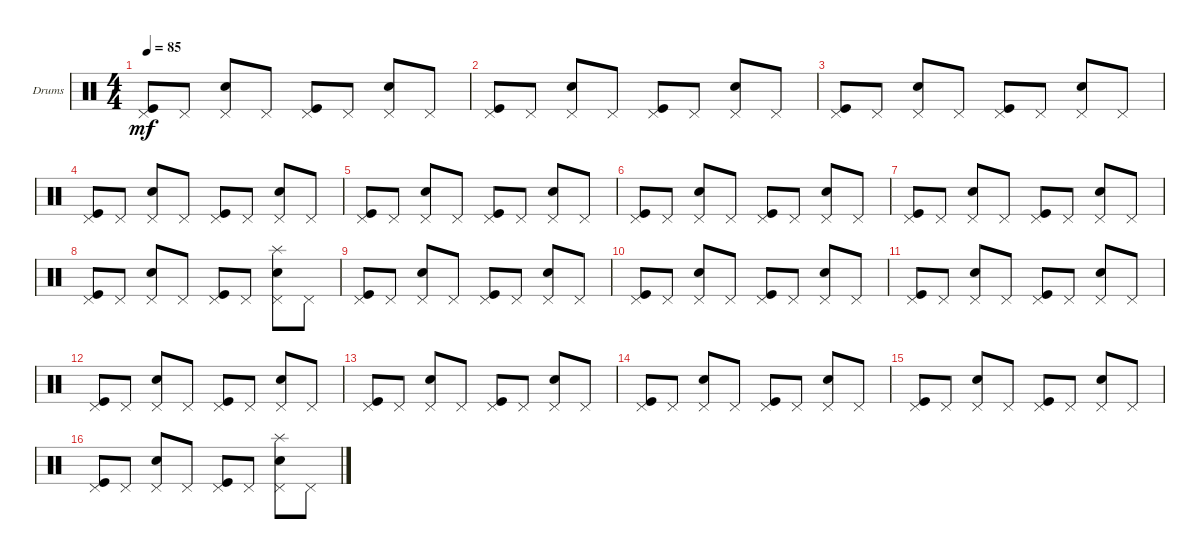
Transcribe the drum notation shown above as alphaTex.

\defaultSystemsLayout 4
\bracketExtendMode groupsimilarinstruments
\firstSystemTrackNameOrientation horizontal
\otherSystemsTrackNameOrientation horizontal
\track ("Drumkit" "Drums") {instrument percussion}
\staff {score}
\articulation defaults
\ts (4 4)
\tempo 85
\clef neutral
\ks c
("Kick (hit)" "Pedal Hi-Hat (hit)").8{dy mf} "Pedal Hi-Hat (hit)".8 ("Snare (hit) 2" "Pedal Hi-Hat (hit)").8 "Pedal Hi-Hat (hit)".8 ("Kick (hit)" "Pedal Hi-Hat (hit)").8 "Pedal Hi-Hat (hit)".8 ("Snare (hit) 2" "Pedal Hi-Hat (hit)").8 "Pedal Hi-Hat (hit)".8 |
("Kick (hit)" "Pedal Hi-Hat (hit)").8 "Pedal Hi-Hat (hit)".8 ("Snare (hit) 2" "Pedal Hi-Hat (hit)").8 "Pedal Hi-Hat (hit)".8 ("Kick (hit)" "Pedal Hi-Hat (hit)").8 "Pedal Hi-Hat (hit)".8 ("Snare (hit) 2" "Pedal Hi-Hat (hit)").8 "Pedal Hi-Hat (hit)".8 |
("Kick (hit)" "Pedal Hi-Hat (hit)").8 "Pedal Hi-Hat (hit)".8 ("Snare (hit) 2" "Pedal Hi-Hat (hit)").8 "Pedal Hi-Hat (hit)".8 ("Kick (hit)" "Pedal Hi-Hat (hit)").8 "Pedal Hi-Hat (hit)".8 ("Snare (hit) 2" "Pedal Hi-Hat (hit)").8 "Pedal Hi-Hat (hit)".8 |
("Kick (hit)" "Pedal Hi-Hat (hit)").8 "Pedal Hi-Hat (hit)".8 ("Snare (hit) 2" "Pedal Hi-Hat (hit)").8 "Pedal Hi-Hat (hit)".8 ("Kick (hit)" "Pedal Hi-Hat (hit)").8 "Pedal Hi-Hat (hit)".8 ("Snare (hit) 2" "Pedal Hi-Hat (hit)").8 "Pedal Hi-Hat (hit)".8 |
("Kick (hit)" "Pedal Hi-Hat (hit)").8 "Pedal Hi-Hat (hit)".8 ("Snare (hit) 2" "Pedal Hi-Hat (hit)").8 "Pedal Hi-Hat (hit)".8 ("Kick (hit)" "Pedal Hi-Hat (hit)").8 "Pedal Hi-Hat (hit)".8 ("Snare (hit) 2" "Pedal Hi-Hat (hit)").8 "Pedal Hi-Hat (hit)".8 |
("Kick (hit)" "Pedal Hi-Hat (hit)").8 "Pedal Hi-Hat (hit)".8 ("Snare (hit) 2" "Pedal Hi-Hat (hit)").8 "Pedal Hi-Hat (hit)".8 ("Kick (hit)" "Pedal Hi-Hat (hit)").8 "Pedal Hi-Hat (hit)".8 ("Snare (hit) 2" "Pedal Hi-Hat (hit)").8 "Pedal Hi-Hat (hit)".8 |
("Kick (hit)" "Pedal Hi-Hat (hit)").8 "Pedal Hi-Hat (hit)".8 ("Snare (hit) 2" "Pedal Hi-Hat (hit)").8 "Pedal Hi-Hat (hit)".8 ("Kick (hit)" "Pedal Hi-Hat (hit)").8 "Pedal Hi-Hat (hit)".8 ("Snare (hit) 2" "Pedal Hi-Hat (hit)").8 "Pedal Hi-Hat (hit)".8 |
("Kick (hit)" "Pedal Hi-Hat (hit)").8 "Pedal Hi-Hat (hit)".8 ("Snare (hit) 2" "Pedal Hi-Hat (hit)").8 "Pedal Hi-Hat (hit)".8 ("Kick (hit)" "Pedal Hi-Hat (hit)").8 "Pedal Hi-Hat (hit)".8 ("Snare (hit) 2" "Pedal Hi-Hat (hit)" "Splash (hit)").8 "Pedal Hi-Hat (hit)".8 |
("Kick (hit)" "Pedal Hi-Hat (hit)").8 "Pedal Hi-Hat (hit)".8 ("Snare (hit) 2" "Pedal Hi-Hat (hit)").8 "Pedal Hi-Hat (hit)".8 ("Kick (hit)" "Pedal Hi-Hat (hit)").8 "Pedal Hi-Hat (hit)".8 ("Snare (hit) 2" "Pedal Hi-Hat (hit)").8 "Pedal Hi-Hat (hit)".8 |
("Kick (hit)" "Pedal Hi-Hat (hit)").8 "Pedal Hi-Hat (hit)".8 ("Snare (hit) 2" "Pedal Hi-Hat (hit)").8 "Pedal Hi-Hat (hit)".8 ("Kick (hit)" "Pedal Hi-Hat (hit)").8 "Pedal Hi-Hat (hit)".8 ("Snare (hit) 2" "Pedal Hi-Hat (hit)").8 "Pedal Hi-Hat (hit)".8 |
("Kick (hit)" "Pedal Hi-Hat (hit)").8 "Pedal Hi-Hat (hit)".8 ("Snare (hit) 2" "Pedal Hi-Hat (hit)").8 "Pedal Hi-Hat (hit)".8 ("Kick (hit)" "Pedal Hi-Hat (hit)").8 "Pedal Hi-Hat (hit)".8 ("Snare (hit) 2" "Pedal Hi-Hat (hit)").8 "Pedal Hi-Hat (hit)".8 |
("Kick (hit)" "Pedal Hi-Hat (hit)").8 "Pedal Hi-Hat (hit)".8 ("Snare (hit) 2" "Pedal Hi-Hat (hit)").8 "Pedal Hi-Hat (hit)".8 ("Kick (hit)" "Pedal Hi-Hat (hit)").8 "Pedal Hi-Hat (hit)".8 ("Snare (hit) 2" "Pedal Hi-Hat (hit)").8 "Pedal Hi-Hat (hit)".8 |
("Kick (hit)" "Pedal Hi-Hat (hit)").8 "Pedal Hi-Hat (hit)".8 ("Snare (hit) 2" "Pedal Hi-Hat (hit)").8 "Pedal Hi-Hat (hit)".8 ("Kick (hit)" "Pedal Hi-Hat (hit)").8 "Pedal Hi-Hat (hit)".8 ("Snare (hit) 2" "Pedal Hi-Hat (hit)").8 "Pedal Hi-Hat (hit)".8 |
("Kick (hit)" "Pedal Hi-Hat (hit)").8 "Pedal Hi-Hat (hit)".8 ("Snare (hit) 2" "Pedal Hi-Hat (hit)").8 "Pedal Hi-Hat (hit)".8 ("Kick (hit)" "Pedal Hi-Hat (hit)").8 "Pedal Hi-Hat (hit)".8 ("Snare (hit) 2" "Pedal Hi-Hat (hit)").8 "Pedal Hi-Hat (hit)".8 |
("Kick (hit)" "Pedal Hi-Hat (hit)").8 "Pedal Hi-Hat (hit)".8 ("Snare (hit) 2" "Pedal Hi-Hat (hit)").8 "Pedal Hi-Hat (hit)".8 ("Kick (hit)" "Pedal Hi-Hat (hit)").8 "Pedal Hi-Hat (hit)".8 ("Snare (hit) 2" "Pedal Hi-Hat (hit)").8 "Pedal Hi-Hat (hit)".8 |
("Kick (hit)" "Pedal Hi-Hat (hit)").8 "Pedal Hi-Hat (hit)".8 ("Snare (hit) 2" "Pedal Hi-Hat (hit)").8 "Pedal Hi-Hat (hit)".8 ("Kick (hit)" "Pedal Hi-Hat (hit)").8 "Pedal Hi-Hat (hit)".8 ("Snare (hit) 2" "Pedal Hi-Hat (hit)" "Splash (hit)").8 "Pedal Hi-Hat (hit)".8
